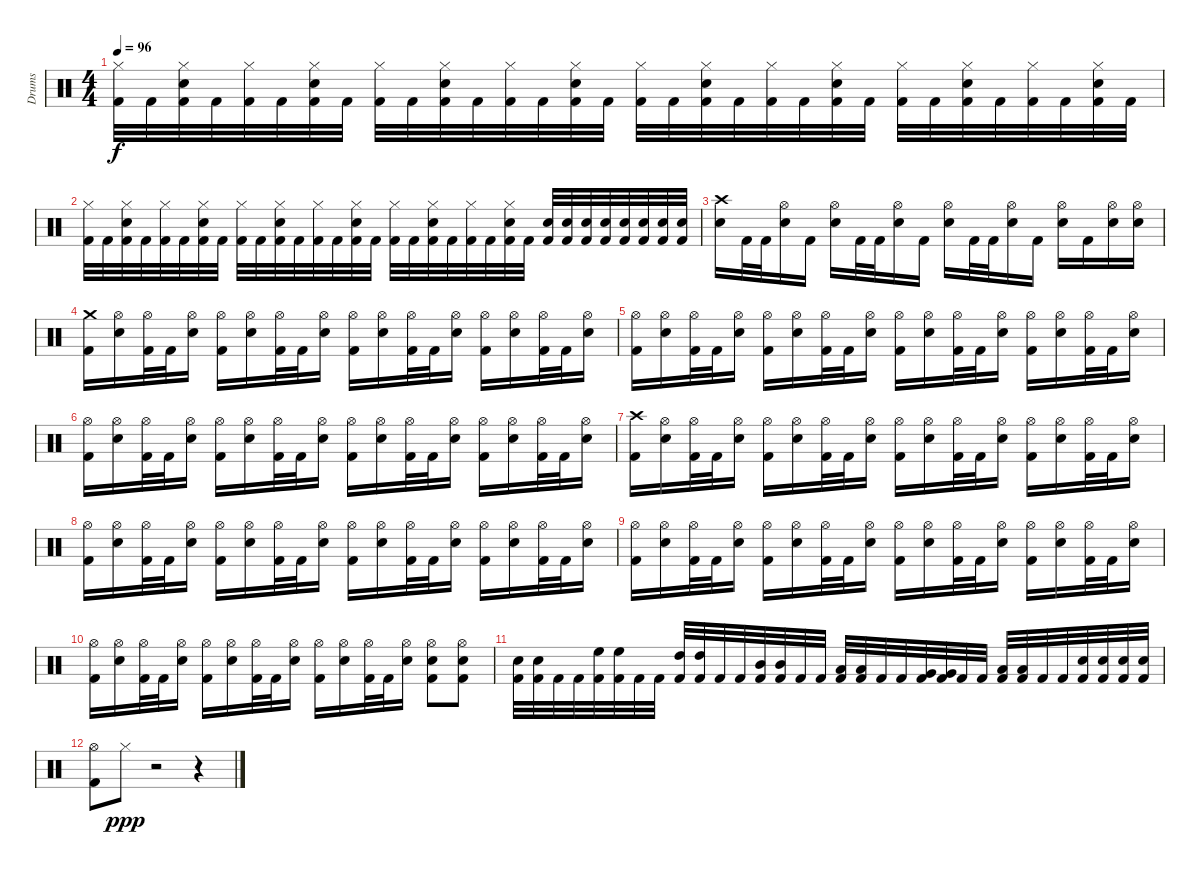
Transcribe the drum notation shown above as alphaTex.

\track ("Drums" "Drums") {instrument percussion}
\staff {score}
\articulation defaults
\ts (4 4)
\tempo 96
\clef neutral
\ks c
("Kick (hit) 2" "Hi-Hat (closed)").32{dy f} "Kick (hit) 2".32 ("Kick (hit) 2" "Snare (hit) 2" "Hi-Hat (closed)").32 "Kick (hit) 2".32 ("Kick (hit) 2" "Hi-Hat (closed)").32 "Kick (hit) 2".32 ("Kick (hit) 2" "Snare (hit) 2" "Hi-Hat (closed)").32 "Kick (hit) 2".32 ("Kick (hit) 2" "Hi-Hat (closed)").32 "Kick (hit) 2".32 ("Kick (hit) 2" "Snare (hit) 2" "Hi-Hat (closed)").32 "Kick (hit) 2".32 ("Kick (hit) 2" "Hi-Hat (closed)").32 "Kick (hit) 2".32 ("Kick (hit) 2" "Snare (hit) 2" "Hi-Hat (closed)").32 "Kick (hit) 2".32 ("Kick (hit) 2" "Hi-Hat (closed)").32 "Kick (hit) 2".32 ("Kick (hit) 2" "Snare (hit) 2" "Hi-Hat (closed)").32 "Kick (hit) 2".32 ("Kick (hit) 2" "Hi-Hat (closed)").32 "Kick (hit) 2".32 ("Kick (hit) 2" "Snare (hit) 2" "Hi-Hat (closed)").32 "Kick (hit) 2".32 ("Kick (hit) 2" "Hi-Hat (closed)").32 "Kick (hit) 2".32 ("Kick (hit) 2" "Snare (hit) 2" "Hi-Hat (closed)").32 "Kick (hit) 2".32 ("Kick (hit) 2" "Hi-Hat (closed)").32 "Kick (hit) 2".32 ("Kick (hit) 2" "Snare (hit) 2" "Hi-Hat (closed)").32 "Kick (hit) 2".32 |
("Kick (hit) 2" "Hi-Hat (closed)").32 "Kick (hit) 2".32 ("Kick (hit) 2" "Snare (hit) 2" "Hi-Hat (closed)").32 "Kick (hit) 2".32 ("Kick (hit) 2" "Hi-Hat (closed)").32 "Kick (hit) 2".32 ("Kick (hit) 2" "Snare (hit) 2" "Hi-Hat (closed)").32 "Kick (hit) 2".32 ("Kick (hit) 2" "Hi-Hat (closed)").32 "Kick (hit) 2".32 ("Kick (hit) 2" "Snare (hit) 2" "Hi-Hat (closed)").32 "Kick (hit) 2".32 ("Kick (hit) 2" "Hi-Hat (closed)").32 "Kick (hit) 2".32 ("Kick (hit) 2" "Snare (hit) 2" "Hi-Hat (closed)").32 "Kick (hit) 2".32 ("Kick (hit) 2" "Hi-Hat (closed)").32 "Kick (hit) 2".32 ("Kick (hit) 2" "Snare (hit) 2" "Hi-Hat (closed)").32 "Kick (hit) 2".32 ("Kick (hit) 2" "Hi-Hat (closed)").32 "Kick (hit) 2".32 ("Kick (hit) 2" "Snare (hit) 2" "Hi-Hat (closed)").32 "Kick (hit) 2".32 ("Kick (hit) 2" "Snare (hit) 2").32 ("Kick (hit) 2" "Snare (hit) 2").32 ("Kick (hit) 2" "Snare (hit) 2").32 ("Kick (hit) 2" "Snare (hit) 2").32 ("Kick (hit) 2" "Snare (hit) 2").32 ("Kick (hit) 2" "Snare (hit) 2").32 ("Kick (hit) 2" "Snare (hit) 2").32 ("Kick (hit) 2" "Snare (hit) 2").32 |
\section ("" "")
("Snare (hit) 2" "Crash high (hit)").16 "Kick (hit) 2".32 "Kick (hit) 2".32 ("Snare (hit) 2" "Hi-Hat (open)").16 "Kick (hit) 2".16 ("Snare (hit) 2" "Hi-Hat (open)").16 "Kick (hit) 2".32 "Kick (hit) 2".32 ("Snare (hit) 2" "Hi-Hat (open)").16 "Kick (hit) 2".16 ("Snare (hit) 2" "Hi-Hat (open)").16 "Kick (hit) 2".32 "Kick (hit) 2".32 ("Snare (hit) 2" "Hi-Hat (open)").16 "Kick (hit) 2".16 ("Snare (hit) 2" "Hi-Hat (open)").16 "Kick (hit) 2".16 ("Snare (hit) 2" "Hi-Hat (open)").16 ("Snare (hit) 2" "Hi-Hat (open)").16 |
("Kick (hit) 2" "Crash medium (hit)").16 ("Snare (hit) 2" "Hi-Hat (open)").16 ("Kick (hit) 2" "Hi-Hat (open)").32 "Kick (hit) 2".32 ("Snare (hit) 2" "Hi-Hat (open)").16 ("Kick (hit) 2" "Hi-Hat (open)").16 ("Snare (hit) 2" "Hi-Hat (open)").16 ("Kick (hit) 2" "Hi-Hat (open)").32 "Kick (hit) 2".32 ("Snare (hit) 2" "Hi-Hat (open)").16 ("Kick (hit) 2" "Hi-Hat (open)").16 ("Snare (hit) 2" "Hi-Hat (open)").16 ("Kick (hit) 2" "Hi-Hat (open)").32 "Kick (hit) 2".32 ("Snare (hit) 2" "Hi-Hat (open)").16 ("Kick (hit) 2" "Hi-Hat (open)").16 ("Snare (hit) 2" "Hi-Hat (open)").16 ("Kick (hit) 2" "Hi-Hat (open)").32 "Kick (hit) 2".32 ("Snare (hit) 2" "Hi-Hat (open)").16 |
("Kick (hit) 2" "Hi-Hat (open)").16 ("Snare (hit) 2" "Hi-Hat (open)").16 ("Kick (hit) 2" "Hi-Hat (open)").32 "Kick (hit) 2".32 ("Snare (hit) 2" "Hi-Hat (open)").16 ("Kick (hit) 2" "Hi-Hat (open)").16 ("Snare (hit) 2" "Hi-Hat (open)").16 ("Kick (hit) 2" "Hi-Hat (open)").32 "Kick (hit) 2".32 ("Snare (hit) 2" "Hi-Hat (open)").16 ("Kick (hit) 2" "Hi-Hat (open)").16 ("Snare (hit) 2" "Hi-Hat (open)").16 ("Kick (hit) 2" "Hi-Hat (open)").32 "Kick (hit) 2".32 ("Snare (hit) 2" "Hi-Hat (open)").16 ("Kick (hit) 2" "Hi-Hat (open)").16 ("Snare (hit) 2" "Hi-Hat (open)").16 ("Kick (hit) 2" "Hi-Hat (open)").32 "Kick (hit) 2".32 ("Snare (hit) 2" "Hi-Hat (open)").16 |
("Kick (hit) 2" "Hi-Hat (open)").16 ("Snare (hit) 2" "Hi-Hat (open)").16 ("Kick (hit) 2" "Hi-Hat (open)").32 "Kick (hit) 2".32 ("Snare (hit) 2" "Hi-Hat (open)").16 ("Kick (hit) 2" "Hi-Hat (open)").16 ("Snare (hit) 2" "Hi-Hat (open)").16 ("Kick (hit) 2" "Hi-Hat (open)").32 "Kick (hit) 2".32 ("Snare (hit) 2" "Hi-Hat (open)").16 ("Kick (hit) 2" "Hi-Hat (open)").16 ("Snare (hit) 2" "Hi-Hat (open)").16 ("Kick (hit) 2" "Hi-Hat (open)").32 "Kick (hit) 2".32 ("Snare (hit) 2" "Hi-Hat (open)").16 ("Kick (hit) 2" "Hi-Hat (open)").16 ("Snare (hit) 2" "Hi-Hat (open)").16 ("Kick (hit) 2" "Hi-Hat (open)").32 "Kick (hit) 2".32 ("Snare (hit) 2" "Hi-Hat (open)").16 |
("Kick (hit) 2" "Crash high (hit)").16 ("Snare (hit) 2" "Hi-Hat (open)").16 ("Kick (hit) 2" "Hi-Hat (open)").32 "Kick (hit) 2".32 ("Snare (hit) 2" "Hi-Hat (open)").16 ("Kick (hit) 2" "Hi-Hat (open)").16 ("Snare (hit) 2" "Hi-Hat (open)").16 ("Kick (hit) 2" "Hi-Hat (open)").32 "Kick (hit) 2".32 ("Snare (hit) 2" "Hi-Hat (open)").16 ("Kick (hit) 2" "Hi-Hat (open)").16 ("Snare (hit) 2" "Hi-Hat (open)").16 ("Kick (hit) 2" "Hi-Hat (open)").32 "Kick (hit) 2".32 ("Snare (hit) 2" "Hi-Hat (open)").16 ("Kick (hit) 2" "Hi-Hat (open)").16 ("Snare (hit) 2" "Hi-Hat (open)").16 ("Kick (hit) 2" "Hi-Hat (open)").32 "Kick (hit) 2".32 ("Snare (hit) 2" "Hi-Hat (open)").16 |
("Kick (hit) 2" "Hi-Hat (open)").16 ("Snare (hit) 2" "Hi-Hat (open)").16 ("Kick (hit) 2" "Hi-Hat (open)").32 "Kick (hit) 2".32 ("Snare (hit) 2" "Hi-Hat (open)").16 ("Kick (hit) 2" "Hi-Hat (open)").16 ("Snare (hit) 2" "Hi-Hat (open)").16 ("Kick (hit) 2" "Hi-Hat (open)").32 "Kick (hit) 2".32 ("Snare (hit) 2" "Hi-Hat (open)").16 ("Kick (hit) 2" "Hi-Hat (open)").16 ("Snare (hit) 2" "Hi-Hat (open)").16 ("Kick (hit) 2" "Hi-Hat (open)").32 "Kick (hit) 2".32 ("Snare (hit) 2" "Hi-Hat (open)").16 ("Kick (hit) 2" "Hi-Hat (open)").16 ("Snare (hit) 2" "Hi-Hat (open)").16 ("Kick (hit) 2" "Hi-Hat (open)").32 "Kick (hit) 2".32 ("Snare (hit) 2" "Hi-Hat (open)").16 |
("Kick (hit) 2" "Hi-Hat (open)").16 ("Snare (hit) 2" "Hi-Hat (open)").16 ("Kick (hit) 2" "Hi-Hat (open)").32 "Kick (hit) 2".32 ("Snare (hit) 2" "Hi-Hat (open)").16 ("Kick (hit) 2" "Hi-Hat (open)").16 ("Snare (hit) 2" "Hi-Hat (open)").16 ("Kick (hit) 2" "Hi-Hat (open)").32 "Kick (hit) 2".32 ("Snare (hit) 2" "Hi-Hat (open)").16 ("Kick (hit) 2" "Hi-Hat (open)").16 ("Snare (hit) 2" "Hi-Hat (open)").16 ("Kick (hit) 2" "Hi-Hat (open)").32 "Kick (hit) 2".32 ("Snare (hit) 2" "Hi-Hat (open)").16 ("Kick (hit) 2" "Hi-Hat (open)").16 ("Snare (hit) 2" "Hi-Hat (open)").16 ("Kick (hit) 2" "Hi-Hat (open)").32 "Kick (hit) 2".32 ("Snare (hit) 2" "Hi-Hat (open)").16 |
("Kick (hit) 2" "Hi-Hat (open)").16 ("Snare (hit) 2" "Hi-Hat (open)").16 ("Kick (hit) 2" "Hi-Hat (open)").32 "Kick (hit) 2".32 ("Snare (hit) 2" "Hi-Hat (open)").16 ("Kick (hit) 2" "Hi-Hat (open)").16 ("Snare (hit) 2" "Hi-Hat (open)").16 ("Kick (hit) 2" "Hi-Hat (open)").32 "Kick (hit) 2".32 ("Snare (hit) 2" "Hi-Hat (open)").16 ("Kick (hit) 2" "Hi-Hat (open)").16 ("Snare (hit) 2" "Hi-Hat (open)").16 ("Kick (hit) 2" "Hi-Hat (open)").32 "Kick (hit) 2".32 ("Snare (hit) 2" "Hi-Hat (open)").16 ("Kick (hit) 2" "Snare (hit) 2" "Hi-Hat (open)").8 ("Kick (hit) 2" "Snare (hit) 2" "Hi-Hat (open)").8 |
("Kick (hit) 2" "Snare (hit) 2").32 ("Kick (hit) 2" "Snare (hit) 2").32 "Kick (hit) 2".32 "Kick (hit) 2".32 ("Kick (hit) 2" "High Floor Tom (hit)").32 ("Kick (hit) 2" "High Floor Tom (hit)").32 "Kick (hit) 2".32 "Kick (hit) 2".32 ("Kick (hit) 2" "High Tom (hit)").32 ("Kick (hit) 2" "High Tom (hit)").32 "Kick (hit) 2".32 "Kick (hit) 2".32 ("Kick (hit) 2" "Mid Tom (hit)").32 ("Kick (hit) 2" "Mid Tom (hit)").32 "Kick (hit) 2".32 "Kick (hit) 2".32 ("Kick (hit) 2" "Low Tom (hit)").32 ("Kick (hit) 2" "Low Tom (hit)").32 "Kick (hit) 2".32 "Kick (hit) 2".32 ("Kick (hit) 2" "Very Low Tom (hit)").32 ("Kick (hit) 2" "Very Low Tom (hit)").32 "Kick (hit) 2".32 "Kick (hit) 2".32 ("Kick (hit) 2" "Low Floor Tom (hit)").32 ("Kick (hit) 2" "Low Floor Tom (hit)").32 "Kick (hit) 2".32 "Kick (hit) 2".32 ("Kick (hit) 2" "Snare (hit) 2").32 ("Kick (hit) 2" "Snare (hit) 2").32 ("Kick (hit) 2" "Snare (hit) 2").32 ("Kick (hit) 2" "Snare (hit) 2").32 |
("Kick (hit) 2" "Hi-Hat (open)").8 "Hi-Hat (closed)".8{dy ppp} r.2 r.4
